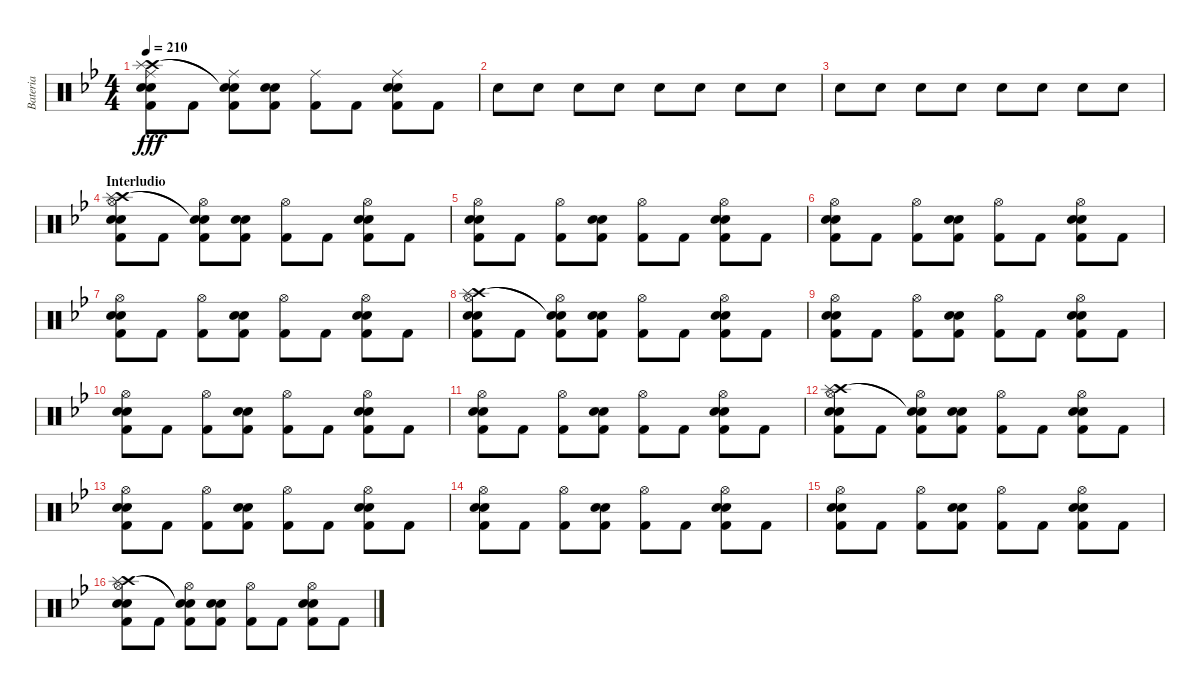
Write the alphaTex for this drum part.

\track ("Bateria" "Bateria") {instrument percussion}
\staff {score}
\articulation defaults
\ts (4 4)
\tempo 210
\clef neutral
\ks gminor
("Ride (middle)" "Crash high (hit)" "Splash (hit)" "Snare (hit) 2" "Kick (hit) 2" "Electric Snare (hit)").8{dy fff} "Kick (hit) 2".8 ("Ride (middle)" "Snare (hit)"{t} "Snare (hit)"{t} "Kick (hit) 2").8 ("Snare (hit) 2" "Kick (hit) 2" "Electric Snare (hit)").8 ("Ride (middle)" "Kick (hit) 2").8 "Kick (hit) 2".8 ("Ride (middle)" "Snare (hit) 2" "Kick (hit) 2" "Electric Snare (hit)").8 "Kick (hit) 2".8 |
"Snare (hit) 2".8 "Electric Snare (hit)".8 "Electric Snare (hit)".8 "Snare (hit) 2".8 "Electric Snare (hit)".8 "Electric Snare (hit)".8 "Snare (hit) 2".8 "Electric Snare (hit)".8 |
"Electric Snare (hit)".8 "Snare (hit) 2".8 "Snare (hit) 2".8 "Snare (hit) 2".8 "Snare (hit) 2".8 "Snare (hit) 2".8 "Snare (hit) 2".8 "Snare (hit) 2".8 |
\section ("" "Interludio")
("Hi-Hat (open)" "Crash high (hit)" "Splash (hit)" "Snare (hit) 2" "Electric Snare (hit)" "Kick (hit) 2").8 "Kick (hit) 2".8 ("Hi-Hat (open)" "Snare (hit)"{t} "Snare (hit)"{t} "Kick (hit) 2").8 ("Snare (hit) 2" "Electric Snare (hit)" "Kick (hit) 2").8 ("Hi-Hat (open)" "Kick (hit) 2").8 "Kick (hit) 2".8 ("Hi-Hat (open)" "Snare (hit) 2" "Electric Snare (hit)" "Kick (hit) 2").8 "Kick (hit) 2".8 |
("Hi-Hat (open)" "Snare (hit) 2" "Kick (hit) 2" "Electric Snare (hit)").8 "Kick (hit) 2".8 ("Hi-Hat (open)" "Kick (hit) 2").8 ("Snare (hit) 2" "Kick (hit) 2" "Electric Snare (hit)").8 ("Hi-Hat (open)" "Kick (hit) 2").8 "Kick (hit) 2".8 ("Hi-Hat (open)" "Snare (hit) 2" "Kick (hit) 2" "Electric Snare (hit)").8 "Kick (hit) 2".8 |
("Hi-Hat (open)" "Snare (hit) 2" "Kick (hit) 2" "Electric Snare (hit)").8 "Kick (hit) 2".8 ("Hi-Hat (open)" "Kick (hit) 2").8 ("Snare (hit) 2" "Kick (hit) 2" "Electric Snare (hit)").8 ("Hi-Hat (open)" "Kick (hit) 2").8 "Kick (hit) 2".8 ("Hi-Hat (open)" "Snare (hit) 2" "Kick (hit) 2" "Electric Snare (hit)").8 "Kick (hit) 2".8 |
("Hi-Hat (open)" "Snare (hit) 2" "Kick (hit) 2" "Electric Snare (hit)").8 "Kick (hit) 2".8 ("Hi-Hat (open)" "Kick (hit) 2").8 ("Snare (hit) 2" "Kick (hit) 2" "Electric Snare (hit)").8 ("Hi-Hat (open)" "Kick (hit) 2").8 "Kick (hit) 2".8 ("Hi-Hat (open)" "Snare (hit) 2" "Kick (hit) 2" "Electric Snare (hit)").8 "Kick (hit) 2".8 |
("Hi-Hat (open)" "Crash high (hit)" "Splash (hit)" "Snare (hit) 2" "Kick (hit) 2" "Electric Snare (hit)").8 "Kick (hit) 2".8 ("Hi-Hat (open)" "Snare (hit)"{t} "Snare (hit)"{t} "Kick (hit) 2").8 ("Snare (hit) 2" "Kick (hit) 2" "Electric Snare (hit)").8 ("Hi-Hat (open)" "Kick (hit) 2").8 "Kick (hit) 2".8 ("Hi-Hat (open)" "Snare (hit) 2" "Kick (hit) 2" "Electric Snare (hit)").8 "Kick (hit) 2".8 |
("Hi-Hat (open)" "Snare (hit) 2" "Kick (hit) 2" "Electric Snare (hit)").8 "Kick (hit) 2".8 ("Hi-Hat (open)" "Kick (hit) 2").8 ("Snare (hit) 2" "Kick (hit) 2" "Electric Snare (hit)").8 ("Hi-Hat (open)" "Kick (hit) 2").8 "Kick (hit) 2".8 ("Hi-Hat (open)" "Snare (hit) 2" "Kick (hit) 2" "Electric Snare (hit)").8 "Kick (hit) 2".8 |
("Hi-Hat (open)" "Snare (hit) 2" "Kick (hit) 2" "Electric Snare (hit)").8 "Kick (hit) 2".8 ("Hi-Hat (open)" "Kick (hit) 2").8 ("Snare (hit) 2" "Kick (hit) 2" "Electric Snare (hit)").8 ("Hi-Hat (open)" "Kick (hit) 2").8 "Kick (hit) 2".8 ("Hi-Hat (open)" "Snare (hit) 2" "Kick (hit) 2" "Electric Snare (hit)").8 "Kick (hit) 2".8 |
("Hi-Hat (open)" "Snare (hit) 2" "Kick (hit) 2" "Electric Snare (hit)").8 "Kick (hit) 2".8 ("Hi-Hat (open)" "Kick (hit) 2").8 ("Snare (hit) 2" "Kick (hit) 2" "Electric Snare (hit)").8 ("Hi-Hat (open)" "Kick (hit) 2").8 "Kick (hit) 2".8 ("Hi-Hat (open)" "Snare (hit) 2" "Kick (hit) 2" "Electric Snare (hit)").8 "Kick (hit) 2".8 |
("Hi-Hat (open)" "Crash high (hit)" "Splash (hit)" "Snare (hit) 2" "Kick (hit) 2" "Electric Snare (hit)").8 "Kick (hit) 2".8 ("Hi-Hat (open)" "Snare (hit)"{t} "Snare (hit)"{t} "Kick (hit) 2").8 ("Snare (hit) 2" "Kick (hit) 2" "Electric Snare (hit)").8 ("Hi-Hat (open)" "Kick (hit) 2").8 "Kick (hit) 2".8 ("Hi-Hat (open)" "Snare (hit) 2" "Kick (hit) 2" "Electric Snare (hit)").8 "Kick (hit) 2".8 |
("Hi-Hat (open)" "Snare (hit) 2" "Kick (hit) 2" "Electric Snare (hit)").8 "Kick (hit) 2".8 ("Hi-Hat (open)" "Kick (hit) 2").8 ("Snare (hit) 2" "Kick (hit) 2" "Electric Snare (hit)").8 ("Hi-Hat (open)" "Kick (hit) 2").8 "Kick (hit) 2".8 ("Hi-Hat (open)" "Snare (hit) 2" "Kick (hit) 2" "Electric Snare (hit)").8 "Kick (hit) 2".8 |
("Hi-Hat (open)" "Snare (hit) 2" "Kick (hit) 2" "Electric Snare (hit)").8 "Kick (hit) 2".8 ("Hi-Hat (open)" "Kick (hit) 2").8 ("Snare (hit) 2" "Kick (hit) 2" "Electric Snare (hit)").8 ("Hi-Hat (open)" "Kick (hit) 2").8 "Kick (hit) 2".8 ("Hi-Hat (open)" "Snare (hit) 2" "Kick (hit) 2" "Electric Snare (hit)").8 "Kick (hit) 2".8 |
("Hi-Hat (open)" "Snare (hit) 2" "Kick (hit) 2" "Electric Snare (hit)").8 "Kick (hit) 2".8 ("Hi-Hat (open)" "Kick (hit) 2").8 ("Snare (hit) 2" "Kick (hit) 2" "Electric Snare (hit)").8 ("Hi-Hat (open)" "Kick (hit) 2").8 "Kick (hit) 2".8 ("Hi-Hat (open)" "Snare (hit) 2" "Kick (hit) 2" "Electric Snare (hit)").8 "Kick (hit) 2".8 |
("Hi-Hat (open)" "Crash high (hit)" "Splash (hit)" "Snare (hit) 2" "Kick (hit) 2" "Electric Snare (hit)").8 "Kick (hit) 2".8 ("Hi-Hat (open)" "Snare (hit)"{t} "Snare (hit)"{t} "Kick (hit) 2").8 ("Snare (hit) 2" "Kick (hit) 2" "Electric Snare (hit)").8 ("Hi-Hat (open)" "Kick (hit) 2").8 "Kick (hit) 2".8 ("Hi-Hat (open)" "Snare (hit) 2" "Kick (hit) 2" "Electric Snare (hit)").8 "Kick (hit) 2".8
